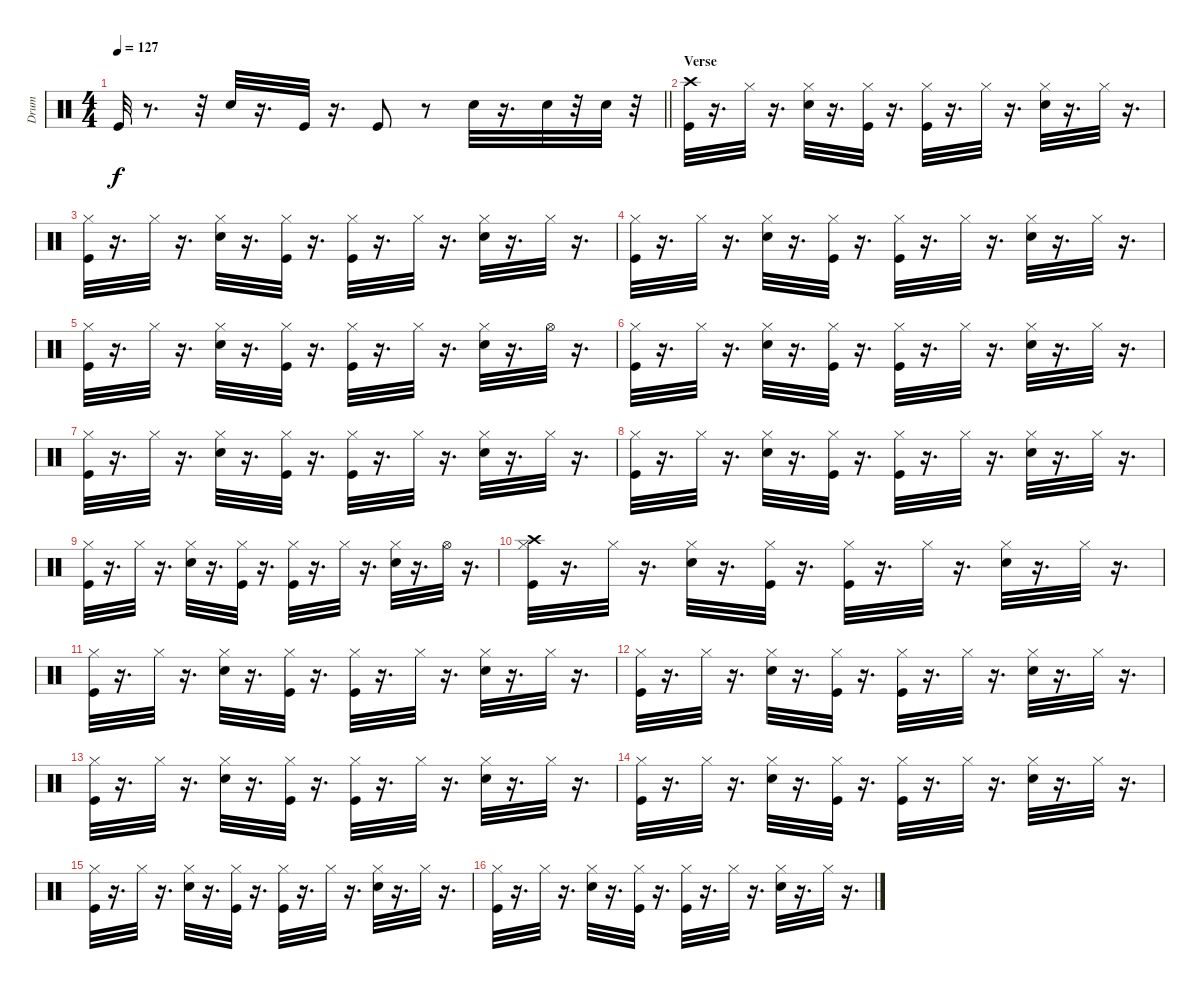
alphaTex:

\track ("Drum" "Drum") {instrument percussion}
\staff {score}
\articulation defaults
\ts (4 4)
\tempo 127
\clef neutral
\barLineRight lightlight
\ks c "Kick (hit)".32{dy f}
r.8{d} r.32 "Snare (hit) 2".32 r.16{d} "Kick (hit)".32 r.16{d} "Kick (hit)".8 r.8 "Snare (hit) 2".32 r.16{d} "Snare (hit) 2".32 r.32 "Snare (hit) 2".32 r.32 |
\section ("" "Verse")
("Crash high (hit)" "Kick (hit)").32 r.16{d} "Hi-Hat (closed)".32 r.16{d} ("Snare (hit) 2" "Hi-Hat (closed)").32 r.16{d} ("Kick (hit)" "Hi-Hat (closed)").32 r.16{d} ("Hi-Hat (closed)" "Kick (hit)").32 r.16{d} "Hi-Hat (closed)".32 r.16{d} ("Snare (hit) 2" "Hi-Hat (closed)").32 r.16{d} "Hi-Hat (closed)".32 r.16{d} |
("Kick (hit)" "Hi-Hat (closed)").32 r.16{d} "Hi-Hat (closed)".32 r.16{d} ("Snare (hit) 2" "Hi-Hat (closed)").32 r.16{d} ("Kick (hit)" "Hi-Hat (closed)").32 r.16{d} ("Hi-Hat (closed)" "Kick (hit)").32 r.16{d} "Hi-Hat (closed)".32 r.16{d} ("Snare (hit) 2" "Hi-Hat (closed)").32 r.16{d} "Hi-Hat (closed)".32 r.16{d} |
("Kick (hit)" "Hi-Hat (closed)").32 r.16{d} "Hi-Hat (closed)".32 r.16{d} ("Snare (hit) 2" "Hi-Hat (closed)").32 r.16{d} ("Kick (hit)" "Hi-Hat (closed)").32 r.16{d} ("Hi-Hat (closed)" "Kick (hit)").32 r.16{d} "Hi-Hat (closed)".32 r.16{d} ("Snare (hit) 2" "Hi-Hat (closed)").32 r.16{d} "Hi-Hat (closed)".32 r.16{d} |
("Kick (hit)" "Hi-Hat (closed)").32 r.16{d} "Hi-Hat (closed)".32 r.16{d} ("Snare (hit) 2" "Hi-Hat (closed)").32 r.16{d} ("Kick (hit)" "Hi-Hat (closed)").32 r.16{d} ("Hi-Hat (closed)" "Kick (hit)").32 r.16{d} "Hi-Hat (closed)".32 r.16{d} ("Snare (hit) 2" "Hi-Hat (closed)").32 r.16{d} "Hi-Hat (open)".32 r.16{d} |
("Kick (hit)" "Hi-Hat (closed)").32 r.16{d} "Hi-Hat (closed)".32 r.16{d} ("Snare (hit) 2" "Hi-Hat (closed)").32 r.16{d} ("Kick (hit)" "Hi-Hat (closed)").32 r.16{d} ("Hi-Hat (closed)" "Kick (hit)").32 r.16{d} "Hi-Hat (closed)".32 r.16{d} ("Snare (hit) 2" "Hi-Hat (closed)").32 r.16{d} "Hi-Hat (closed)".32 r.16{d} |
("Kick (hit)" "Hi-Hat (closed)").32 r.16{d} "Hi-Hat (closed)".32 r.16{d} ("Snare (hit) 2" "Hi-Hat (closed)").32 r.16{d} ("Kick (hit)" "Hi-Hat (closed)").32 r.16{d} ("Hi-Hat (closed)" "Kick (hit)").32 r.16{d} "Hi-Hat (closed)".32 r.16{d} ("Snare (hit) 2" "Hi-Hat (closed)").32 r.16{d} "Hi-Hat (closed)".32 r.16{d} |
("Kick (hit)" "Hi-Hat (closed)").32 r.16{d} "Hi-Hat (closed)".32 r.16{d} ("Snare (hit) 2" "Hi-Hat (closed)").32 r.16{d} ("Kick (hit)" "Hi-Hat (closed)").32 r.16{d} ("Hi-Hat (closed)" "Kick (hit)").32 r.16{d} "Hi-Hat (closed)".32 r.16{d} ("Snare (hit) 2" "Hi-Hat (closed)").32 r.16{d} "Hi-Hat (closed)".32 r.16{d} |
("Kick (hit)" "Hi-Hat (closed)").32 r.16{d} "Hi-Hat (closed)".32 r.16{d} ("Snare (hit) 2" "Hi-Hat (closed)").32 r.16{d} ("Kick (hit)" "Hi-Hat (closed)").32 r.16{d} ("Hi-Hat (closed)" "Kick (hit)").32 r.16{d} "Hi-Hat (closed)".32 r.16{d} ("Snare (hit) 2" "Hi-Hat (closed)").32 r.16{d} "Hi-Hat (open)".32 r.16{d} |
("Crash high (hit)" "Kick (hit)" "Hi-Hat (closed)").32 r.16{d} "Hi-Hat (closed)".32 r.16{d} ("Snare (hit) 2" "Hi-Hat (closed)").32 r.16{d} ("Kick (hit)" "Hi-Hat (closed)").32 r.16{d} ("Hi-Hat (closed)" "Kick (hit)").32 r.16{d} "Hi-Hat (closed)".32 r.16{d} ("Snare (hit) 2" "Hi-Hat (closed)").32 r.16{d} "Hi-Hat (closed)".32 r.16{d} |
("Kick (hit)" "Hi-Hat (closed)").32 r.16{d} "Hi-Hat (closed)".32 r.16{d} ("Snare (hit) 2" "Hi-Hat (closed)").32 r.16{d} ("Kick (hit)" "Hi-Hat (closed)").32 r.16{d} ("Hi-Hat (closed)" "Kick (hit)").32 r.16{d} "Hi-Hat (closed)".32 r.16{d} ("Snare (hit) 2" "Hi-Hat (closed)").32 r.16{d} "Hi-Hat (closed)".32 r.16{d} |
("Kick (hit)" "Hi-Hat (closed)").32 r.16{d} "Hi-Hat (closed)".32 r.16{d} ("Snare (hit) 2" "Hi-Hat (closed)").32 r.16{d} ("Kick (hit)" "Hi-Hat (closed)").32 r.16{d} ("Hi-Hat (closed)" "Kick (hit)").32 r.16{d} "Hi-Hat (closed)".32 r.16{d} ("Snare (hit) 2" "Hi-Hat (closed)").32 r.16{d} "Hi-Hat (closed)".32 r.16{d} |
("Kick (hit)" "Hi-Hat (closed)").32 r.16{d} "Hi-Hat (closed)".32 r.16{d} ("Snare (hit) 2" "Hi-Hat (closed)").32 r.16{d} ("Kick (hit)" "Hi-Hat (closed)").32 r.16{d} ("Hi-Hat (closed)" "Kick (hit)").32 r.16{d} "Hi-Hat (closed)".32 r.16{d} ("Snare (hit) 2" "Hi-Hat (closed)").32 r.16{d} "Hi-Hat (closed)".32 r.16{d} |
("Kick (hit)" "Hi-Hat (closed)").32 r.16{d} "Hi-Hat (closed)".32 r.16{d} ("Snare (hit) 2" "Hi-Hat (closed)").32 r.16{d} ("Kick (hit)" "Hi-Hat (closed)").32 r.16{d} ("Hi-Hat (closed)" "Kick (hit)").32 r.16{d} "Hi-Hat (closed)".32 r.16{d} ("Snare (hit) 2" "Hi-Hat (closed)").32 r.16{d} "Hi-Hat (closed)".32 r.16{d} |
("Kick (hit)" "Hi-Hat (closed)").32 r.16{d} "Hi-Hat (closed)".32 r.16{d} ("Snare (hit) 2" "Hi-Hat (closed)").32 r.16{d} ("Kick (hit)" "Hi-Hat (closed)").32 r.16{d} ("Hi-Hat (closed)" "Kick (hit)").32 r.16{d} "Hi-Hat (closed)".32 r.16{d} ("Snare (hit) 2" "Hi-Hat (closed)").32 r.16{d} "Hi-Hat (closed)".32 r.16{d} |
("Kick (hit)" "Hi-Hat (closed)").32 r.16{d} "Hi-Hat (closed)".32 r.16{d} ("Snare (hit) 2" "Hi-Hat (closed)").32 r.16{d} ("Kick (hit)" "Hi-Hat (closed)").32 r.16{d} ("Hi-Hat (closed)" "Kick (hit)").32 r.16{d} "Hi-Hat (closed)".32 r.16{d} ("Snare (hit) 2" "Hi-Hat (closed)").32 r.16{d} "Hi-Hat (closed)".32 r.16{d}
